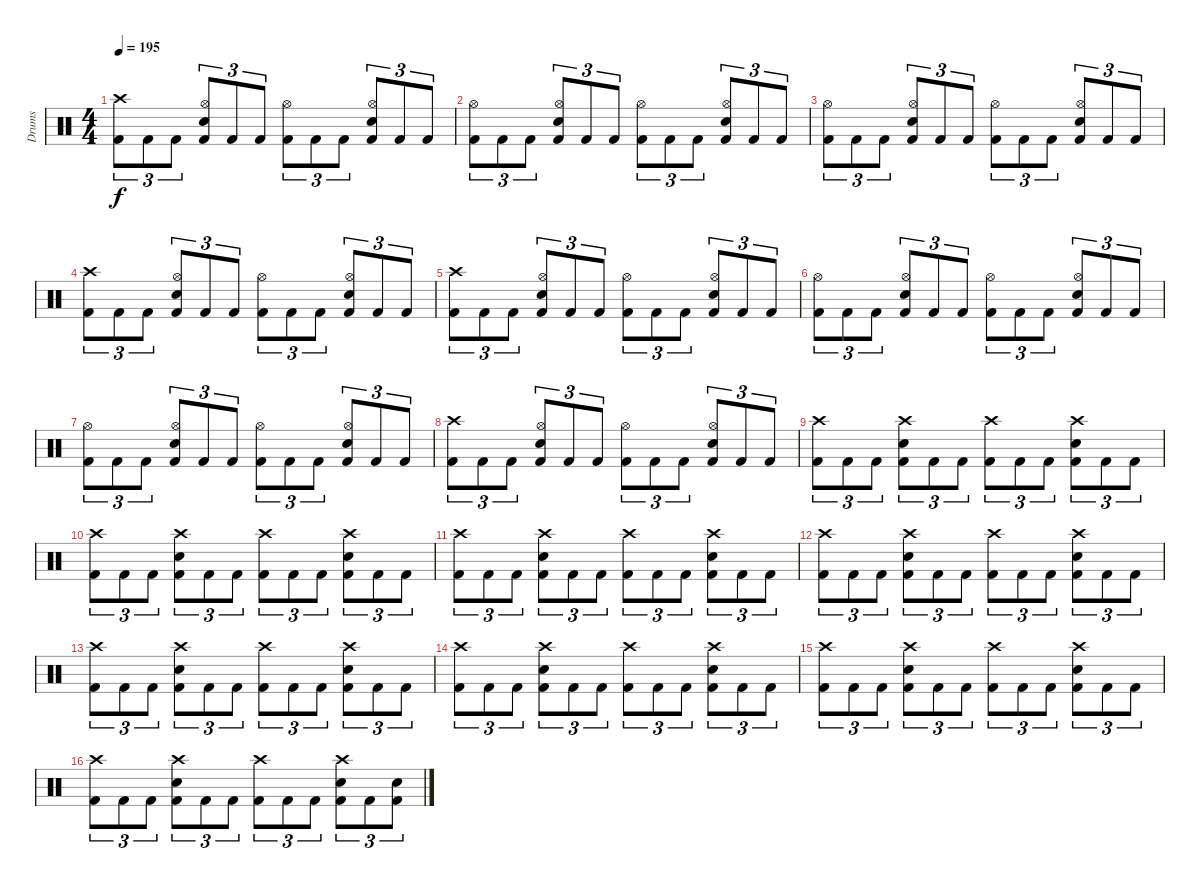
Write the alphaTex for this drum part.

\track ("Drums" "Drums") {instrument percussion}
\staff {score}
\articulation defaults
\ts (4 4)
\tempo 195
\clef neutral
\ks c
("Crash high (hit)" "Kick (hit) 2").8{tu (3 2) dy f} "Kick (hit) 2".8{tu (3 2)} "Kick (hit) 2".8{tu (3 2)} ("Hi-Hat (open)" "Snare (hit) 2" "Kick (hit) 2").8{tu (3 2)} "Kick (hit) 2".8{tu (3 2)} "Kick (hit) 2".8{tu (3 2)} ("Hi-Hat (open)" "Kick (hit) 2").8{tu (3 2)} "Kick (hit) 2".8{tu (3 2)} "Kick (hit) 2".8{tu (3 2)} ("Hi-Hat (open)" "Snare (hit) 2" "Kick (hit) 2").8{tu (3 2)} "Kick (hit) 2".8{tu (3 2)} "Kick (hit) 2".8{tu (3 2)} |
("Hi-Hat (open)" "Kick (hit) 2").8{tu (3 2)} "Kick (hit) 2".8{tu (3 2)} "Kick (hit) 2".8{tu (3 2)} ("Hi-Hat (open)" "Snare (hit) 2" "Kick (hit) 2").8{tu (3 2)} "Kick (hit) 2".8{tu (3 2)} "Kick (hit) 2".8{tu (3 2)} ("Hi-Hat (open)" "Kick (hit) 2").8{tu (3 2)} "Kick (hit) 2".8{tu (3 2)} "Kick (hit) 2".8{tu (3 2)} ("Hi-Hat (open)" "Snare (hit) 2" "Kick (hit) 2").8{tu (3 2)} "Kick (hit) 2".8{tu (3 2)} "Kick (hit) 2".8{tu (3 2)} |
("Hi-Hat (open)" "Kick (hit) 2").8{tu (3 2)} "Kick (hit) 2".8{tu (3 2)} "Kick (hit) 2".8{tu (3 2)} ("Hi-Hat (open)" "Snare (hit) 2" "Kick (hit) 2").8{tu (3 2)} "Kick (hit) 2".8{tu (3 2)} "Kick (hit) 2".8{tu (3 2)} ("Hi-Hat (open)" "Kick (hit) 2").8{tu (3 2)} "Kick (hit) 2".8{tu (3 2)} "Kick (hit) 2".8{tu (3 2)} ("Hi-Hat (open)" "Snare (hit) 2" "Kick (hit) 2").8{tu (3 2)} "Kick (hit) 2".8{tu (3 2)} "Kick (hit) 2".8{tu (3 2)} |
("Crash high (hit)" "Kick (hit) 2").8{tu (3 2)} "Kick (hit) 2".8{tu (3 2)} "Kick (hit) 2".8{tu (3 2)} ("Hi-Hat (open)" "Snare (hit) 2" "Kick (hit) 2").8{tu (3 2)} "Kick (hit) 2".8{tu (3 2)} "Kick (hit) 2".8{tu (3 2)} ("Hi-Hat (open)" "Kick (hit) 2").8{tu (3 2)} "Kick (hit) 2".8{tu (3 2)} "Kick (hit) 2".8{tu (3 2)} ("Hi-Hat (open)" "Snare (hit) 2" "Kick (hit) 2").8{tu (3 2)} "Kick (hit) 2".8{tu (3 2)} "Kick (hit) 2".8{tu (3 2)} |
("Crash high (hit)" "Kick (hit) 2").8{tu (3 2)} "Kick (hit) 2".8{tu (3 2)} "Kick (hit) 2".8{tu (3 2)} ("Hi-Hat (open)" "Snare (hit) 2" "Kick (hit) 2").8{tu (3 2)} "Kick (hit) 2".8{tu (3 2)} "Kick (hit) 2".8{tu (3 2)} ("Hi-Hat (open)" "Kick (hit) 2").8{tu (3 2)} "Kick (hit) 2".8{tu (3 2)} "Kick (hit) 2".8{tu (3 2)} ("Hi-Hat (open)" "Snare (hit) 2" "Kick (hit) 2").8{tu (3 2)} "Kick (hit) 2".8{tu (3 2)} "Kick (hit) 2".8{tu (3 2)} |
("Hi-Hat (open)" "Kick (hit) 2").8{tu (3 2)} "Kick (hit) 2".8{tu (3 2)} "Kick (hit) 2".8{tu (3 2)} ("Hi-Hat (open)" "Snare (hit) 2" "Kick (hit) 2").8{tu (3 2)} "Kick (hit) 2".8{tu (3 2)} "Kick (hit) 2".8{tu (3 2)} ("Hi-Hat (open)" "Kick (hit) 2").8{tu (3 2)} "Kick (hit) 2".8{tu (3 2)} "Kick (hit) 2".8{tu (3 2)} ("Hi-Hat (open)" "Snare (hit) 2" "Kick (hit) 2").8{tu (3 2)} "Kick (hit) 2".8{tu (3 2)} "Kick (hit) 2".8{tu (3 2)} |
("Hi-Hat (open)" "Kick (hit) 2").8{tu (3 2)} "Kick (hit) 2".8{tu (3 2)} "Kick (hit) 2".8{tu (3 2)} ("Hi-Hat (open)" "Snare (hit) 2" "Kick (hit) 2").8{tu (3 2)} "Kick (hit) 2".8{tu (3 2)} "Kick (hit) 2".8{tu (3 2)} ("Hi-Hat (open)" "Kick (hit) 2").8{tu (3 2)} "Kick (hit) 2".8{tu (3 2)} "Kick (hit) 2".8{tu (3 2)} ("Hi-Hat (open)" "Snare (hit) 2" "Kick (hit) 2").8{tu (3 2)} "Kick (hit) 2".8{tu (3 2)} "Kick (hit) 2".8{tu (3 2)} |
("Crash high (hit)" "Kick (hit) 2").8{tu (3 2)} "Kick (hit) 2".8{tu (3 2)} "Kick (hit) 2".8{tu (3 2)} ("Hi-Hat (open)" "Snare (hit) 2" "Kick (hit) 2").8{tu (3 2)} "Kick (hit) 2".8{tu (3 2)} "Kick (hit) 2".8{tu (3 2)} ("Hi-Hat (open)" "Kick (hit) 2").8{tu (3 2)} "Kick (hit) 2".8{tu (3 2)} "Kick (hit) 2".8{tu (3 2)} ("Hi-Hat (open)" "Snare (hit) 2" "Kick (hit) 2").8{tu (3 2)} "Kick (hit) 2".8{tu (3 2)} "Kick (hit) 2".8{tu (3 2)} |
("Crash high (hit)" "Kick (hit) 2").8{tu (3 2)} "Kick (hit) 2".8{tu (3 2)} "Kick (hit) 2".8{tu (3 2)} ("Crash high (hit)" "Snare (hit) 2" "Kick (hit) 2").8{tu (3 2)} "Kick (hit) 2".8{tu (3 2)} "Kick (hit) 2".8{tu (3 2)} ("Crash high (hit)" "Kick (hit) 2").8{tu (3 2)} "Kick (hit) 2".8{tu (3 2)} "Kick (hit) 2".8{tu (3 2)} ("Crash high (hit)" "Snare (hit) 2" "Kick (hit) 2").8{tu (3 2)} "Kick (hit) 2".8{tu (3 2)} "Kick (hit) 2".8{tu (3 2)} |
("Crash high (hit)" "Kick (hit) 2").8{tu (3 2)} "Kick (hit) 2".8{tu (3 2)} "Kick (hit) 2".8{tu (3 2)} ("Crash high (hit)" "Snare (hit) 2" "Kick (hit) 2").8{tu (3 2)} "Kick (hit) 2".8{tu (3 2)} "Kick (hit) 2".8{tu (3 2)} ("Crash high (hit)" "Kick (hit) 2").8{tu (3 2)} "Kick (hit) 2".8{tu (3 2)} "Kick (hit) 2".8{tu (3 2)} ("Crash high (hit)" "Snare (hit) 2" "Kick (hit) 2").8{tu (3 2)} "Kick (hit) 2".8{tu (3 2)} "Kick (hit) 2".8{tu (3 2)} |
("Crash high (hit)" "Kick (hit) 2").8{tu (3 2)} "Kick (hit) 2".8{tu (3 2)} "Kick (hit) 2".8{tu (3 2)} ("Crash high (hit)" "Snare (hit) 2" "Kick (hit) 2").8{tu (3 2)} "Kick (hit) 2".8{tu (3 2)} "Kick (hit) 2".8{tu (3 2)} ("Crash high (hit)" "Kick (hit) 2").8{tu (3 2)} "Kick (hit) 2".8{tu (3 2)} "Kick (hit) 2".8{tu (3 2)} ("Crash high (hit)" "Snare (hit) 2" "Kick (hit) 2").8{tu (3 2)} "Kick (hit) 2".8{tu (3 2)} "Kick (hit) 2".8{tu (3 2)} |
("Crash high (hit)" "Kick (hit) 2").8{tu (3 2)} "Kick (hit) 2".8{tu (3 2)} "Kick (hit) 2".8{tu (3 2)} ("Crash high (hit)" "Snare (hit) 2" "Kick (hit) 2").8{tu (3 2)} "Kick (hit) 2".8{tu (3 2)} "Kick (hit) 2".8{tu (3 2)} ("Crash high (hit)" "Kick (hit) 2").8{tu (3 2)} "Kick (hit) 2".8{tu (3 2)} "Kick (hit) 2".8{tu (3 2)} ("Crash high (hit)" "Snare (hit) 2" "Kick (hit) 2").8{tu (3 2)} "Kick (hit) 2".8{tu (3 2)} "Kick (hit) 2".8{tu (3 2)} |
("Crash high (hit)" "Kick (hit) 2").8{tu (3 2)} "Kick (hit) 2".8{tu (3 2)} "Kick (hit) 2".8{tu (3 2)} ("Crash high (hit)" "Snare (hit) 2" "Kick (hit) 2").8{tu (3 2)} "Kick (hit) 2".8{tu (3 2)} "Kick (hit) 2".8{tu (3 2)} ("Crash high (hit)" "Kick (hit) 2").8{tu (3 2)} "Kick (hit) 2".8{tu (3 2)} "Kick (hit) 2".8{tu (3 2)} ("Crash high (hit)" "Snare (hit) 2" "Kick (hit) 2").8{tu (3 2)} "Kick (hit) 2".8{tu (3 2)} "Kick (hit) 2".8{tu (3 2)} |
("Crash high (hit)" "Kick (hit) 2").8{tu (3 2)} "Kick (hit) 2".8{tu (3 2)} "Kick (hit) 2".8{tu (3 2)} ("Crash high (hit)" "Snare (hit) 2" "Kick (hit) 2").8{tu (3 2)} "Kick (hit) 2".8{tu (3 2)} "Kick (hit) 2".8{tu (3 2)} ("Crash high (hit)" "Kick (hit) 2").8{tu (3 2)} "Kick (hit) 2".8{tu (3 2)} "Kick (hit) 2".8{tu (3 2)} ("Crash high (hit)" "Snare (hit) 2" "Kick (hit) 2").8{tu (3 2)} "Kick (hit) 2".8{tu (3 2)} "Kick (hit) 2".8{tu (3 2)} |
("Crash high (hit)" "Kick (hit) 2").8{tu (3 2)} "Kick (hit) 2".8{tu (3 2)} "Kick (hit) 2".8{tu (3 2)} ("Crash high (hit)" "Snare (hit) 2" "Kick (hit) 2").8{tu (3 2)} "Kick (hit) 2".8{tu (3 2)} "Kick (hit) 2".8{tu (3 2)} ("Crash high (hit)" "Kick (hit) 2").8{tu (3 2)} "Kick (hit) 2".8{tu (3 2)} "Kick (hit) 2".8{tu (3 2)} ("Crash high (hit)" "Snare (hit) 2" "Kick (hit) 2").8{tu (3 2)} "Kick (hit) 2".8{tu (3 2)} "Kick (hit) 2".8{tu (3 2)} |
("Crash high (hit)" "Kick (hit) 2").8{tu (3 2)} "Kick (hit) 2".8{tu (3 2)} "Kick (hit) 2".8{tu (3 2)} ("Crash high (hit)" "Snare (hit) 2" "Kick (hit) 2").8{tu (3 2)} "Kick (hit) 2".8{tu (3 2)} "Kick (hit) 2".8{tu (3 2)} ("Crash high (hit)" "Kick (hit) 2").8{tu (3 2)} "Kick (hit) 2".8{tu (3 2)} "Kick (hit) 2".8{tu (3 2)} ("Crash high (hit)" "Snare (hit) 2" "Kick (hit) 2").8{tu (3 2)} "Kick (hit) 2".8{tu (3 2)} ("Snare (hit) 2" "Kick (hit) 2").8{tu (3 2)}
